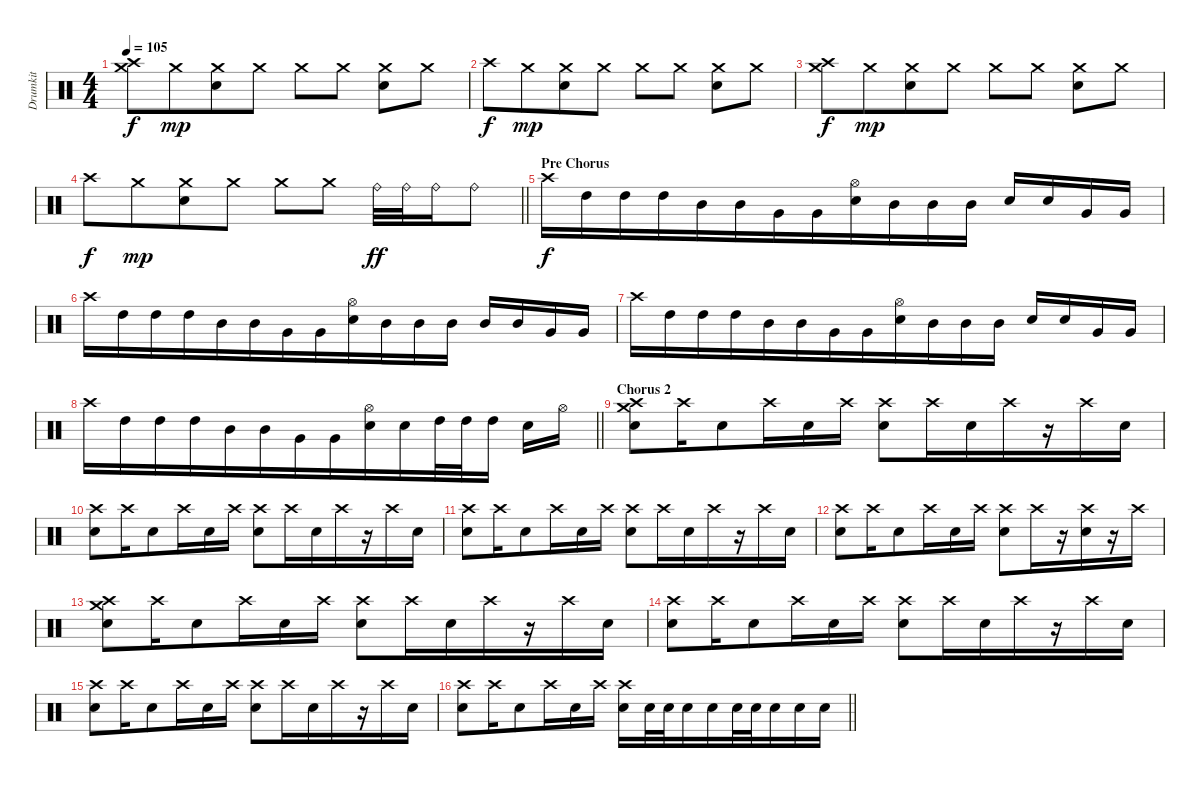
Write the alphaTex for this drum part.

\track ("Drumkit" "Drumkit") {instrument percussion}
\staff {score}
\articulation defaults
\ts (4 4)
\tempo 105
\clef neutral
\ks c
("Crash medium (hit)" "Crash high (hit)").8{dy f} "Crash medium (hit)".8{dy mp beam merge} ("Crash medium (hit)" "Electric Snare (hit)").8 "Crash medium (hit)".8 "Crash medium (hit)".8 "Crash medium (hit)".8 ("Crash medium (hit)" "Electric Snare (hit)").8 "Crash medium (hit)".8 |
"Crash high (hit)".8{dy f} "Crash medium (hit)".8{dy mp beam merge} ("Crash medium (hit)" "Electric Snare (hit)").8 "Crash medium (hit)".8 "Crash medium (hit)".8 "Crash medium (hit)".8 ("Crash medium (hit)" "Electric Snare (hit)").8 "Crash medium (hit)".8 |
("Crash medium (hit)" "Crash high (hit)").8{dy f} "Crash medium (hit)".8{dy mp beam merge} ("Crash medium (hit)" "Electric Snare (hit)").8 "Crash medium (hit)".8 "Crash medium (hit)".8 "Crash medium (hit)".8 ("Crash medium (hit)" "Electric Snare (hit)").8 "Crash medium (hit)".8 |
\barLineRight lightlight "Crash high (hit)".8{dy f} "Crash medium (hit)".8{dy mp beam merge}
("Crash medium (hit)" "Electric Snare (hit)").8 "Crash medium (hit)".8 "Crash medium (hit)".8 "Crash medium (hit)".8 "Ride (bell)".32{dy ff} "Ride (bell)".32 "Ride (bell)".16{beam merge} "Ride (bell)".8 |
\section ("" "Pre Chorus")
"Crash high (hit)".16{dy f} "High Tom (hit)".16 "High Tom (hit)".16{beam merge} "High Tom (hit)".16{beam merge} "Mid Tom (hit)".16{beam merge} "Mid Tom (hit)".16 "Very Low Tom (hit)".16 "Very Low Tom (hit)".16{beam merge} ("Hi-Hat (open)" "Electric Snare (hit)").16 "Mid Tom (hit)".16{beam merge} "Mid Tom (hit)".16{beam merge} "Mid Tom (hit)".16 "Electric Snare (hit)".16 "Electric Snare (hit)".16 "Very Low Tom (hit)".16 "Very Low Tom (hit)".16 |
"Crash high (hit)".16 "High Tom (hit)".16 "High Tom (hit)".16{beam merge} "High Tom (hit)".16{beam merge} "Mid Tom (hit)".16{beam merge} "Mid Tom (hit)".16 "Very Low Tom (hit)".16 "Very Low Tom (hit)".16{beam merge} ("Hi-Hat (open)" "Electric Snare (hit)").16 "Mid Tom (hit)".16{beam merge} "Mid Tom (hit)".16{beam merge} "Mid Tom (hit)".16 "Mid Tom (hit)".16 "Mid Tom (hit)".16 "Very Low Tom (hit)".16 "Very Low Tom (hit)".16 |
"Crash high (hit)".16 "High Tom (hit)".16 "High Tom (hit)".16{beam merge} "High Tom (hit)".16{beam merge} "Mid Tom (hit)".16{beam merge} "Mid Tom (hit)".16 "Very Low Tom (hit)".16 "Very Low Tom (hit)".16{beam merge} ("Hi-Hat (open)" "Electric Snare (hit)").16 "Mid Tom (hit)".16{beam merge} "Mid Tom (hit)".16{beam merge} "Mid Tom (hit)".16 "Electric Snare (hit)".16 "Electric Snare (hit)".16 "Very Low Tom (hit)".16 "Very Low Tom (hit)".16 |
\barLineRight lightlight "Crash high (hit)".16 "High Tom (hit)".16 "High Tom (hit)".16{beam merge} "High Tom (hit)".16{beam merge} "Mid Tom (hit)".16{beam merge} "Mid Tom (hit)".16 "Very Low Tom (hit)".16 "Very Low Tom (hit)".16{beam merge}
("Hi-Hat (open)" "Electric Snare (hit)").16 "Electric Snare (hit)".16{beam merge} "High Tom (hit)".32{beam merge} "High Tom (hit)".32 "High Tom (hit)".16 "Electric Snare (hit)".16 "Hi-Hat (open)".16 |
\section ("" "Chorus 2")
("Crash medium (hit)" "Crash high (hit)" "Electric Snare (hit)").8{beam merge} "Crash high (hit)".16 "Electric Snare (hit)".8{beam merge} "Crash high (hit)".16 "Electric Snare (hit)".16{beam merge} "Crash high (hit)".16 ("Crash high (hit)" "Electric Snare (hit)").8 "Crash high (hit)".16{beam merge} "Electric Snare (hit)".16{beam merge} "Crash high (hit)".16 r.16{beam merge} "Crash high (hit)".16 "Electric Snare (hit)".16 |
("Crash high (hit)" "Electric Snare (hit)").8{beam merge} "Crash high (hit)".16 "Electric Snare (hit)".8{beam merge} "Crash high (hit)".16 "Electric Snare (hit)".16{beam merge} "Crash high (hit)".16 ("Crash high (hit)" "Electric Snare (hit)").8 "Crash high (hit)".16{beam merge} "Electric Snare (hit)".16{beam merge} "Crash high (hit)".16 r.16{beam merge} "Crash high (hit)".16 "Electric Snare (hit)".16 |
("Crash high (hit)" "Electric Snare (hit)").8{beam merge} "Crash high (hit)".16 "Electric Snare (hit)".8{beam merge} "Crash high (hit)".16 "Electric Snare (hit)".16{beam merge} "Crash high (hit)".16 ("Crash high (hit)" "Electric Snare (hit)").8 "Crash high (hit)".16{beam merge} "Electric Snare (hit)".16{beam merge} "Crash high (hit)".16 r.16{beam merge} "Crash high (hit)".16 "Electric Snare (hit)".16 |
("Crash high (hit)" "Electric Snare (hit)").8{beam merge} "Crash high (hit)".16 "Electric Snare (hit)".8{beam merge} "Crash high (hit)".16 "Electric Snare (hit)".16{beam merge} "Crash high (hit)".16 ("Crash high (hit)" "Electric Snare (hit)").8 "Crash high (hit)".16{beam merge} r.16{beam merge} ("Crash high (hit)" "Electric Snare (hit)").16 r.16{beam merge} "Crash high (hit)".16 |
("Crash medium (hit)" "Crash high (hit)" "Electric Snare (hit)").8{beam merge} "Crash high (hit)".16 "Electric Snare (hit)".8{beam merge} "Crash high (hit)".16 "Electric Snare (hit)".16{beam merge} "Crash high (hit)".16 ("Crash high (hit)" "Electric Snare (hit)").8 "Crash high (hit)".16{beam merge} "Electric Snare (hit)".16{beam merge} "Crash high (hit)".16 r.16{beam merge} "Crash high (hit)".16 "Electric Snare (hit)".16 |
("Crash high (hit)" "Electric Snare (hit)").8{beam merge} "Crash high (hit)".16 "Electric Snare (hit)".8{beam merge} "Crash high (hit)".16 "Electric Snare (hit)".16{beam merge} "Crash high (hit)".16 ("Crash high (hit)" "Electric Snare (hit)").8 "Crash high (hit)".16{beam merge} "Electric Snare (hit)".16{beam merge} "Crash high (hit)".16 r.16{beam merge} "Crash high (hit)".16 "Electric Snare (hit)".16 |
("Crash high (hit)" "Electric Snare (hit)").8{beam merge} "Crash high (hit)".16 "Electric Snare (hit)".8{beam merge} "Crash high (hit)".16 "Electric Snare (hit)".16{beam merge} "Crash high (hit)".16 ("Crash high (hit)" "Electric Snare (hit)").8 "Crash high (hit)".16{beam merge} "Electric Snare (hit)".16{beam merge} "Crash high (hit)".16 r.16{beam merge} "Crash high (hit)".16 "Electric Snare (hit)".16 |
\barLineRight lightlight
("Crash high (hit)" "Electric Snare (hit)").8{beam merge} "Crash high (hit)".16 "Electric Snare (hit)".8{beam merge} "Crash high (hit)".16 "Electric Snare (hit)".16{beam merge} "Crash high (hit)".16 ("Crash high (hit)" "Electric Snare (hit)").16 "Electric Snare (hit)".32{beam merge} "Electric Snare (hit)".32{beam merge} "Electric Snare (hit)".16 "Electric Snare (hit)".16{beam merge} "Electric Snare (hit)".32 "Electric Snare (hit)".32{beam merge} "Electric Snare (hit)".16{beam merge} "Electric Snare (hit)".16{beam merge} "Electric Snare (hit)".16
